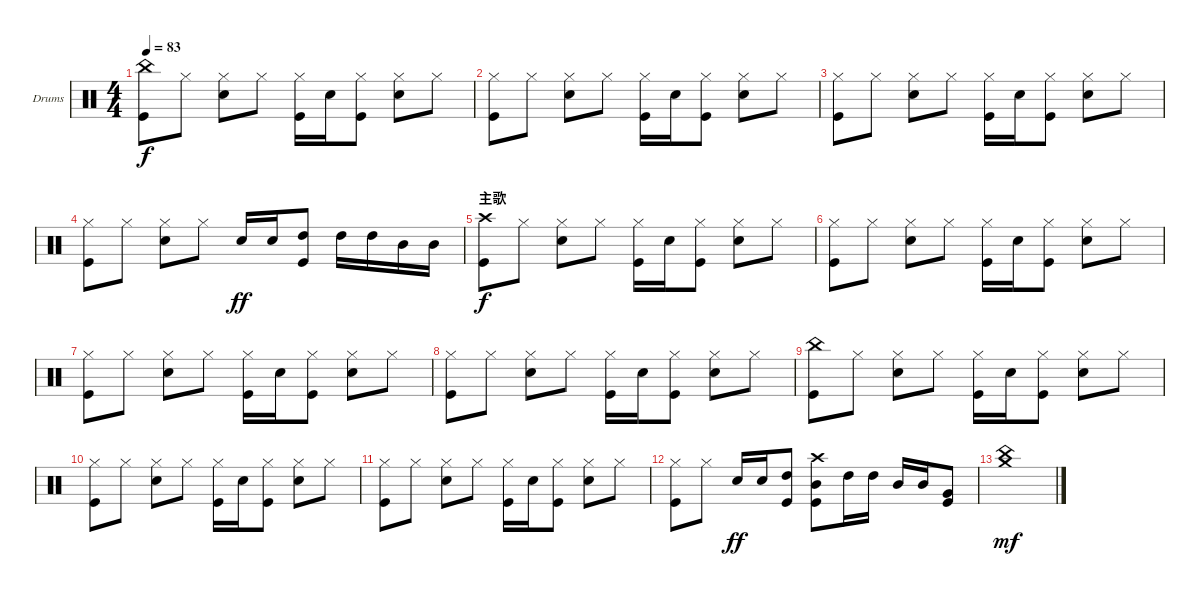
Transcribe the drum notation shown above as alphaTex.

\bracketExtendMode groupsimilarinstruments
\firstSystemTrackNameOrientation horizontal
\otherSystemsTrackNameOrientation horizontal
\track ("Drumkit" "Drums") {solo instrument percussion}
\staff {score}
\articulation defaults
\ts (4 4)
\tempo 83
\clef neutral
\scale
0.333333
\ks c
("Kick (hit)" "China (hit)").8{dy f} "Hi-Hat (closed)".8 ("Snare (hit) 2" "Hi-Hat (closed)").8 "Hi-Hat (closed)".8 ("Kick (hit)" "Hi-Hat (closed)").16 "Snare (hit) 2".16 ("Kick (hit)" "Hi-Hat (closed)").8 ("Snare (hit) 2" "Hi-Hat (closed)").8 "Hi-Hat (closed)".8 |
\scale
0.333333 ("Kick (hit)" "Hi-Hat (closed)").8 "Hi-Hat (closed)".8 ("Snare (hit) 2" "Hi-Hat (closed)").8 "Hi-Hat (closed)".8 ("Kick (hit)" "Hi-Hat (closed)").16 "Snare (hit) 2".16 ("Kick (hit)" "Hi-Hat (closed)").8 ("Snare (hit) 2" "Hi-Hat (closed)").8 "Hi-Hat (closed)".8 |
\scale
0.333333 ("Kick (hit)" "Hi-Hat (closed)").8 "Hi-Hat (closed)".8 ("Snare (hit) 2" "Hi-Hat (closed)").8 "Hi-Hat (closed)".8 ("Kick (hit)" "Hi-Hat (closed)").16 "Snare (hit) 2".16 ("Kick (hit)" "Hi-Hat (closed)").8 ("Snare (hit) 2" "Hi-Hat (closed)").8 "Hi-Hat (closed)".8 |
\scale
0.333333 ("Kick (hit)" "Hi-Hat (closed)").8 "Hi-Hat (closed)".8 ("Snare (hit) 2" "Hi-Hat (closed)").8 "Hi-Hat (closed)".8 "Snare (hit) 2".16{dy ff} "Snare (hit) 2".16 ("High Tom (hit)" "Kick (hit)").8 "High Tom (hit)".16 "High Tom (hit)".16 "Mid Tom (hit)".16 "Mid Tom (hit)".16 |
\section ("" "主歌")
\scale
0.333333 ("Kick (hit)" "Crash high (hit)").8{dy f} "Hi-Hat (closed)".8 ("Snare (hit) 2" "Hi-Hat (closed)").8 "Hi-Hat (closed)".8 ("Kick (hit)" "Hi-Hat (closed)").16 "Snare (hit) 2".16 ("Kick (hit)" "Hi-Hat (closed)").8 ("Snare (hit) 2" "Hi-Hat (closed)").8 "Hi-Hat (closed)".8 |
\scale
0.333333 ("Kick (hit)" "Hi-Hat (closed)").8 "Hi-Hat (closed)".8 ("Snare (hit) 2" "Hi-Hat (closed)").8 "Hi-Hat (closed)".8 ("Kick (hit)" "Hi-Hat (closed)").16 "Snare (hit) 2".16 ("Kick (hit)" "Hi-Hat (closed)").8 ("Snare (hit) 2" "Hi-Hat (closed)").8 "Hi-Hat (closed)".8 |
\scale
0.333333 ("Kick (hit)" "Hi-Hat (closed)").8 "Hi-Hat (closed)".8 ("Snare (hit) 2" "Hi-Hat (closed)").8 "Hi-Hat (closed)".8 ("Kick (hit)" "Hi-Hat (closed)").16 "Snare (hit) 2".16 ("Kick (hit)" "Hi-Hat (closed)").8 ("Snare (hit) 2" "Hi-Hat (closed)").8 "Hi-Hat (closed)".8 |
\scale
0.333333 ("Kick (hit)" "Hi-Hat (closed)").8 "Hi-Hat (closed)".8 ("Snare (hit) 2" "Hi-Hat (closed)").8 "Hi-Hat (closed)".8 ("Kick (hit)" "Hi-Hat (closed)").16 "Snare (hit) 2".16 ("Kick (hit)" "Hi-Hat (closed)").8 ("Snare (hit) 2" "Hi-Hat (closed)").8 "Hi-Hat (closed)".8 |
\scale
0.333333 ("Kick (hit)" "China (hit)").8 "Hi-Hat (closed)".8 ("Snare (hit) 2" "Hi-Hat (closed)").8 "Hi-Hat (closed)".8 ("Kick (hit)" "Hi-Hat (closed)").16 "Snare (hit) 2".16 ("Kick (hit)" "Hi-Hat (closed)").8 ("Snare (hit) 2" "Hi-Hat (closed)").8 "Hi-Hat (closed)".8 |
\scale
0.333333 ("Kick (hit)" "Hi-Hat (closed)").8 "Hi-Hat (closed)".8 ("Snare (hit) 2" "Hi-Hat (closed)").8 "Hi-Hat (closed)".8 ("Kick (hit)" "Hi-Hat (closed)").16 "Snare (hit) 2".16 ("Kick (hit)" "Hi-Hat (closed)").8 ("Snare (hit) 2" "Hi-Hat (closed)").8 "Hi-Hat (closed)".8 |
\scale
0.333333 ("Kick (hit)" "Hi-Hat (closed)").8 "Hi-Hat (closed)".8 ("Snare (hit) 2" "Hi-Hat (closed)").8 "Hi-Hat (closed)".8 ("Kick (hit)" "Hi-Hat (closed)").16 "Snare (hit) 2".16 ("Kick (hit)" "Hi-Hat (closed)").8 ("Snare (hit) 2" "Hi-Hat (closed)").8 "Hi-Hat (closed)".8 |
\scale
0.333333 ("Kick (hit)" "Hi-Hat (closed)").8 "Hi-Hat (closed)".8 "Snare (hit) 2".16{dy ff} "Snare (hit) 2".16 ("Kick (hit)" "High Tom (hit)").8 ("Mid Tom (hit)" "Kick (hit)" "Crash high (hit)").8 "High Tom (hit)".16 "High Tom (hit)".16 "Mid Tom (hit)".16 "Mid Tom (hit)".16 ("Very Low Tom (hit)" "Kick (hit)").8 |
\scale
0.333333 ("China (hit)" "Crash medium (hit)").1{dy mf} |
\scale
0.333333 |
\scale
0.333333 |
\scale
0.333333
